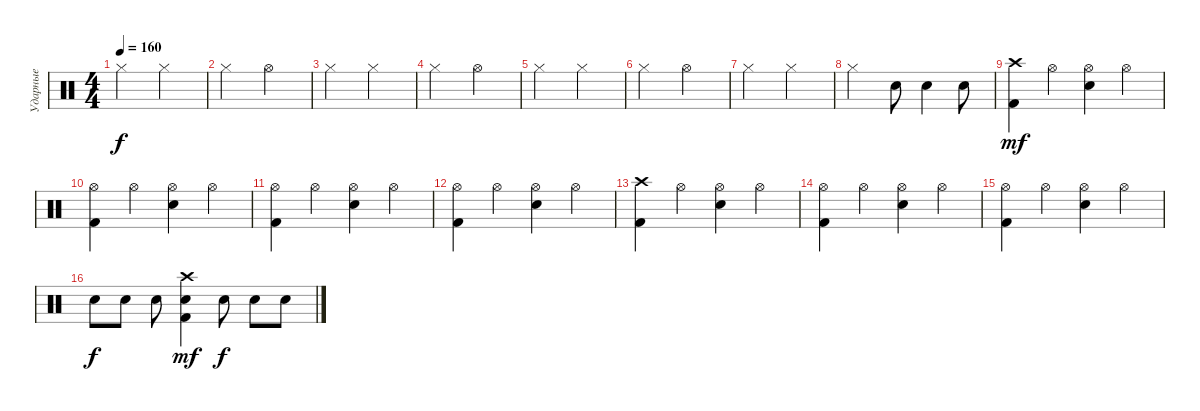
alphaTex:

\track ("Ударные" "Ударные") {instrument percussion}
\staff {score}
\articulation defaults
\ts (4 4)
\tempo 160
\clef neutral
\ks c "Hi-Hat (closed)".2{dy f} "Hi-Hat (closed)".2
|
"Hi-Hat (closed)".2 "Hi-Hat (open)".2 |
"Hi-Hat (closed)".2 "Hi-Hat (closed)".2 |
"Hi-Hat (closed)".2 "Hi-Hat (open)".2 |
"Hi-Hat (closed)".2 "Hi-Hat (closed)".2 |
"Hi-Hat (closed)".2 "Hi-Hat (open)".2 |
"Hi-Hat (closed)".2 "Hi-Hat (closed)".2 |
"Hi-Hat (closed)".2 "Snare (hit) 2".8 "Snare (hit) 2".4 "Snare (hit) 2".8 |
("Kick (hit) 2" "Crash high (hit)").4{dy mf} "Hi-Hat (open)".4 ("Snare (hit) 2" "Hi-Hat (open)").4 "Hi-Hat (open)".4 |
("Kick (hit) 2" "Hi-Hat (open)").4 "Hi-Hat (open)".4 ("Snare (hit) 2" "Hi-Hat (open)").4 "Hi-Hat (open)".4 |
("Kick (hit) 2" "Hi-Hat (open)").4 "Hi-Hat (open)".4 ("Snare (hit) 2" "Hi-Hat (open)").4 "Hi-Hat (open)".4 |
("Kick (hit) 2" "Hi-Hat (open)").4 "Hi-Hat (open)".4 ("Snare (hit) 2" "Hi-Hat (open)").4 "Hi-Hat (open)".4 |
("Kick (hit) 2" "Crash high (hit)").4 "Hi-Hat (open)".4 ("Snare (hit) 2" "Hi-Hat (open)").4 "Hi-Hat (open)".4 |
("Kick (hit) 2" "Hi-Hat (open)").4 "Hi-Hat (open)".4 ("Snare (hit) 2" "Hi-Hat (open)").4 "Hi-Hat (open)".4 |
("Kick (hit) 2" "Hi-Hat (open)").4 "Hi-Hat (open)".4 ("Snare (hit) 2" "Hi-Hat (open)").4 "Hi-Hat (open)".4 |
"Snare (hit) 2".8{dy f} "Snare (hit) 2".8 "Snare (hit) 2".8 ("Kick (hit) 2" "Snare (hit) 2" "Crash high (hit)").4{dy mf} "Snare (hit) 2".8{dy f} "Snare (hit) 2".8 "Snare (hit) 2".8
